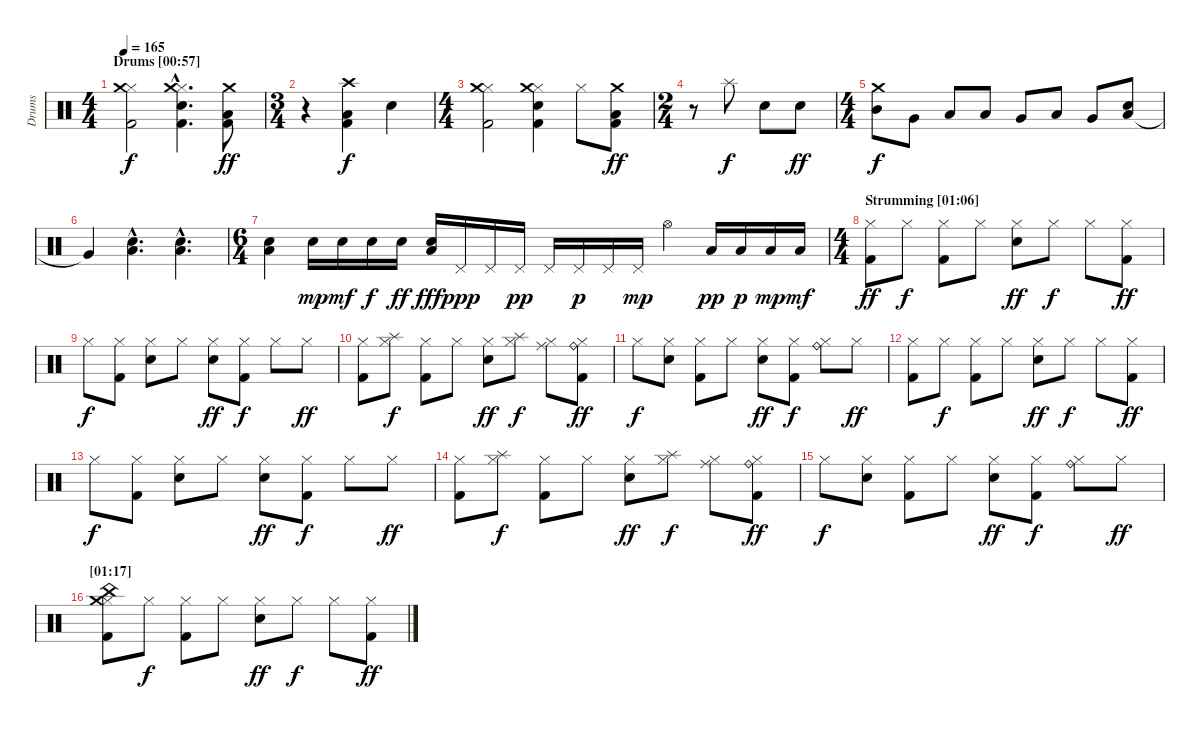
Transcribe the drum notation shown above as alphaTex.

\track ("Drums" "Drums") {instrument percussion}
\staff {score}
\articulation defaults
\ts (4 4)
\section ("" "Drums [00:57]")
\tempo 165
\clef neutral
\ks c
("Hi-Hat (closed)" "Crash medium (hit)" "Kick (hit) 2").2{dy f} ("Hi-Hat (closed)"{hac} "Crash medium (hit)"{hac} "Electric Snare (hit)"{hac} "Kick (hit) 2"{hac}).4{d} ("Crash medium (hit)" "Low Floor Tom (hit)" "Kick (hit) 2").8{dy ff} |
\ts (3 4)
r.4 ("Crash high (hit)" "Low Floor Tom (hit)" "Kick (hit) 2").4{dy f} "Electric Snare (hit)".4 |
\ts (4 4)
("Hi-Hat (closed)" "Crash medium (hit)" "Kick (hit) 2").2 ("Hi-Hat (closed)" "Crash medium (hit)" "Electric Snare (hit)" "Kick (hit) 2").4 "Hi-Hat (closed)".8 ("Crash medium (hit)" "Low Floor Tom (hit)" "Kick (hit) 2").8{dy ff} |
\ts (2 4)
r.8 "Splash (hit)".8{dy f} "Electric Snare (hit)".8 "Electric Snare (hit)".8{dy ff} |
\ts (4 4)
("Crash medium (hit)" "Mid Tom (hit)").8{dy f} "Very Low Tom (hit)".8 "Low Tom (hit)".8 "Low Floor Tom (hit)".8 "Very Low Tom (hit)".8 "Low Floor Tom (hit)".8 "Very Low Tom (hit)".8 ("Low Floor Tom (hit)" "Electric Snare (hit)").8 |
"Very Low Tom (hit)"{t}.4 ("Low Floor Tom (hit)"{hac} "Electric Snare (hit)"{hac}).4{d} ("Low Floor Tom (hit)"{hac} "Electric Snare (hit)"{hac}).4{d} |
\ts (6 4)
("Low Floor Tom (hit)" "Electric Snare (hit)").4 "Electric Snare (hit)".16{dy mp} "Electric Snare (hit)".16{dy mf} "Electric Snare (hit)".16{dy f} "Electric Snare (hit)".16{dy ff} ("Electric Snare (hit)" "Low Floor Tom (hit)").16{dy fff} "Pedal Hi-Hat (hit)".16{dy ppp} "Pedal Hi-Hat (hit)".16 "Pedal Hi-Hat (hit)".16{dy pp} "Pedal Hi-Hat (hit)".16 "Pedal Hi-Hat (hit)".16{dy p} "Pedal Hi-Hat (hit)".16 "Pedal Hi-Hat (hit)".16{dy mp} "Hi-Hat (open)".4 "Low Tom (hit)".16{dy pp} "Low Tom (hit)".16{dy p} "Low Tom (hit)".16{dy mp} "Low Tom (hit)".16{dy mf} |
\ts (4 4)
\section ("" "Strumming [01:06]")
("Hi-Hat (closed)" "Kick (hit) 2").8{dy ff} "Hi-Hat (closed)".8{dy f} ("Hi-Hat (closed)" "Kick (hit) 2").8 "Hi-Hat (closed)".8 ("Hi-Hat (closed)" "Electric Snare (hit)").8{dy ff} "Hi-Hat (closed)".8{dy f} "Hi-Hat (closed)".8 ("Hi-Hat (closed)" "Kick (hit) 2").8{dy ff} |
"Hi-Hat (closed)".8{dy f} ("Hi-Hat (closed)" "Kick (hit) 2").8 ("Hi-Hat (closed)" "Electric Snare (hit)").8 "Hi-Hat (closed)".8 ("Hi-Hat (closed)" "Electric Snare (hit)").8{dy ff} ("Hi-Hat (closed)" "Kick (hit) 2").8{dy f} "Hi-Hat (closed)".8 "Hi-Hat (closed)".8{dy ff} |
("Hi-Hat (closed)" "Kick (hit) 2").8 ("Hi-Hat (closed)" "Splash (hit)").8{dy f} ("Hi-Hat (closed)" "Kick (hit) 2").8 "Hi-Hat (closed)".8 ("Hi-Hat (closed)" "Electric Snare (hit)").8{dy ff} ("Hi-Hat (closed)" "Splash (hit)").8{dy f} ("Hi-Hat (closed)" "Ride (middle)").8 ("Hi-Hat (closed)" "Ride (bell)" "Kick (hit) 2").8{dy ff} |
"Hi-Hat (closed)".8{dy f} ("Hi-Hat (closed)" "Electric Snare (hit)").8 ("Hi-Hat (closed)" "Kick (hit) 2").8 "Hi-Hat (closed)".8 ("Hi-Hat (closed)" "Electric Snare (hit)").8{dy ff} ("Hi-Hat (closed)" "Kick (hit) 2").8{dy f} ("Hi-Hat (closed)" "Ride (bell)").8 "Hi-Hat (closed)".8{dy ff} |
("Hi-Hat (closed)" "Kick (hit) 2").8 "Hi-Hat (closed)".8{dy f} ("Hi-Hat (closed)" "Kick (hit) 2").8 "Hi-Hat (closed)".8 ("Hi-Hat (closed)" "Electric Snare (hit)").8{dy ff} "Hi-Hat (closed)".8{dy f} "Hi-Hat (closed)".8 ("Hi-Hat (closed)" "Kick (hit) 2").8{dy ff} |
"Hi-Hat (closed)".8{dy f} ("Hi-Hat (closed)" "Kick (hit) 2").8 ("Hi-Hat (closed)" "Electric Snare (hit)").8 "Hi-Hat (closed)".8 ("Hi-Hat (closed)" "Electric Snare (hit)").8{dy ff} ("Hi-Hat (closed)" "Kick (hit) 2").8{dy f} "Hi-Hat (closed)".8 "Hi-Hat (closed)".8{dy ff} |
("Hi-Hat (closed)" "Kick (hit) 2").8 ("Hi-Hat (closed)" "Splash (hit)").8{dy f} ("Hi-Hat (closed)" "Kick (hit) 2").8 "Hi-Hat (closed)".8 ("Hi-Hat (closed)" "Electric Snare (hit)").8{dy ff} ("Hi-Hat (closed)" "Splash (hit)").8{dy f} ("Hi-Hat (closed)" "Ride (middle)").8 ("Hi-Hat (closed)" "Ride (bell)" "Kick (hit) 2").8{dy ff} |
"Hi-Hat (closed)".8{dy f} ("Hi-Hat (closed)" "Electric Snare (hit)").8 ("Hi-Hat (closed)" "Kick (hit) 2").8 "Hi-Hat (closed)".8 ("Hi-Hat (closed)" "Electric Snare (hit)").8{dy ff} ("Hi-Hat (closed)" "Kick (hit) 2").8{dy f} ("Hi-Hat (closed)" "Ride (bell)").8 "Hi-Hat (closed)".8{dy ff} |
\section ("" "[01:17]")
("Hi-Hat (closed)" "China (hit)" "Crash medium (hit)" "Kick (hit) 2").8 "Hi-Hat (closed)".8{dy f} ("Hi-Hat (closed)" "Kick (hit) 2").8 "Hi-Hat (closed)".8 ("Hi-Hat (closed)" "Electric Snare (hit)").8{dy ff} "Hi-Hat (closed)".8{dy f} "Hi-Hat (closed)".8 ("Hi-Hat (closed)" "Kick (hit) 2").8{dy ff}
